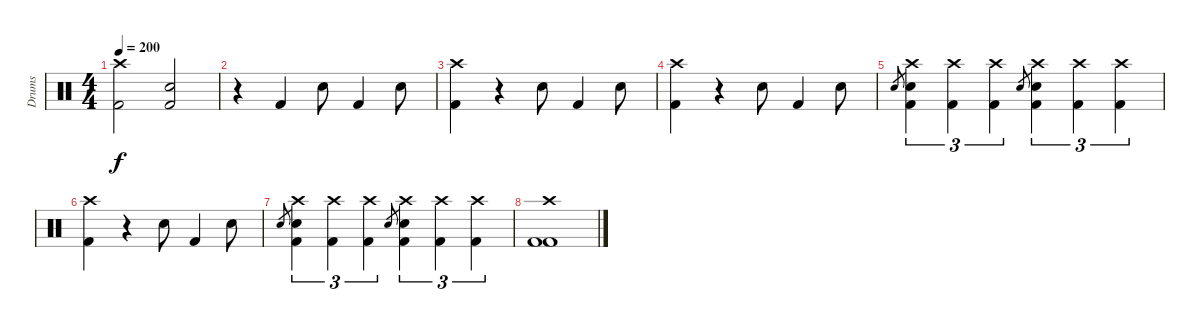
\track ("Drums" "Drums") {instrument percussion}
\staff {score}
\articulation defaults
\ts (4 4)
\tempo 200
\clef neutral
\ks c
("Crash high (hit)" "Kick (hit) 2").2{dy f} ("Snare (hit) 2" "Kick (hit) 2").2 |
r.4 "Kick (hit) 2".4 "Snare (hit) 2".8 "Kick (hit) 2".4 "Snare (hit) 2".8 |
("Crash high (hit)" "Kick (hit) 2").4 r.4 "Snare (hit) 2".8 "Kick (hit) 2".4 "Snare (hit) 2".8 |
("Crash high (hit)" "Kick (hit) 2").4 r.4 "Snare (hit) 2".8 "Kick (hit) 2".4 "Snare (hit) 2".8 |
"Electric Snare (hit)".8{gr} ("Electric Snare (hit)" "Crash high (hit)" "Kick (hit) 2").4{tu (3 2)} ("Crash high (hit)" "Kick (hit) 2").4{tu (3 2)} ("Crash high (hit)" "Kick (hit) 2").4{tu (3 2)} "Electric Snare (hit)".8{gr} ("Crash high (hit)" "Kick (hit) 2" "Electric Snare (hit)").4{tu (3 2)} ("Crash high (hit)" "Kick (hit) 2").4{tu (3 2)} ("Crash high (hit)" "Kick (hit) 2").4{tu (3 2)} |
("Crash high (hit)" "Kick (hit) 2").4 r.4 "Snare (hit) 2".8 "Kick (hit) 2".4 "Snare (hit) 2".8 |
"Electric Snare (hit)".8{gr} ("Electric Snare (hit)" "Crash high (hit)" "Kick (hit) 2").4{tu (3 2)} ("Crash high (hit)" "Kick (hit) 2").4{tu (3 2)} ("Crash high (hit)" "Kick (hit) 2").4{tu (3 2)} "Electric Snare (hit)".8{gr} ("Crash high (hit)" "Kick (hit) 2" "Electric Snare (hit)").4{tu (3 2)} ("Crash high (hit)" "Kick (hit) 2").4{tu (3 2)} ("Crash high (hit)" "Kick (hit) 2").4{tu (3 2)} |
("Crash high (hit)" "Kick (hit) 2" "Kick (hit) 2").1
